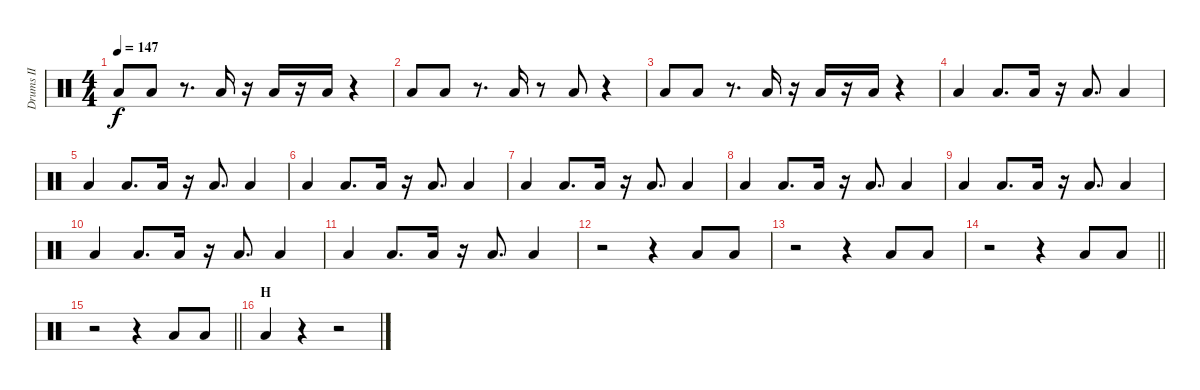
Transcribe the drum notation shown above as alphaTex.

\track ("Drums II" "Drums II") {instrument percussion}
\staff {score}
\articulation defaults
\ts (4 4)
\tempo 147
\clef neutral
\ks c "Low Tom (hit)".8{dy f} "Low Tom (hit)".8
r.8{d} "Low Tom (hit)".16 r.16 "Low Tom (hit)".16 r.16 "Low Tom (hit)".16 r.4 |
"Low Tom (hit)".8 "Low Tom (hit)".8 r.8{d} "Low Tom (hit)".16 r.8 "Low Tom (hit)".8 r.4 |
"Low Tom (hit)".8 "Low Tom (hit)".8 r.8{d} "Low Tom (hit)".16 r.16 "Low Tom (hit)".16 r.16 "Low Tom (hit)".16 r.4 |
"Low Tom (hit)".4 "Low Tom (hit)".8{d} "Low Tom (hit)".16 r.16 "Low Tom (hit)".8{d} "Low Tom (hit)".4 |
"Low Tom (hit)".4 "Low Tom (hit)".8{d} "Low Tom (hit)".16 r.16 "Low Tom (hit)".8{d} "Low Tom (hit)".4 |
"Low Tom (hit)".4 "Low Tom (hit)".8{d} "Low Tom (hit)".16 r.16 "Low Tom (hit)".8{d} "Low Tom (hit)".4 |
"Low Tom (hit)".4 "Low Tom (hit)".8{d} "Low Tom (hit)".16 r.16 "Low Tom (hit)".8{d} "Low Tom (hit)".4 |
"Low Tom (hit)".4 "Low Tom (hit)".8{d} "Low Tom (hit)".16 r.16 "Low Tom (hit)".8{d} "Low Tom (hit)".4 |
"Low Tom (hit)".4 "Low Tom (hit)".8{d} "Low Tom (hit)".16 r.16 "Low Tom (hit)".8{d} "Low Tom (hit)".4 |
"Low Tom (hit)".4 "Low Tom (hit)".8{d} "Low Tom (hit)".16 r.16 "Low Tom (hit)".8{d} "Low Tom (hit)".4 |
"Low Tom (hit)".4 "Low Tom (hit)".8{d} "Low Tom (hit)".16 r.16 "Low Tom (hit)".8{d} "Low Tom (hit)".4 |
r.2 r.4 "Low Tom (hit)".8 "Low Tom (hit)".8 |
r.2 r.4 "Low Tom (hit)".8 "Low Tom (hit)".8 |
\barLineRight lightlight
r.2 r.4 "Low Tom (hit)".8 "Low Tom (hit)".8 |
\section ("" "")
\barLineRight lightlight
r.2 r.4 "Low Tom (hit)".8 "Low Tom (hit)".8 |
\section ("" "H")
"Low Tom (hit)".4 r.4 r.2
